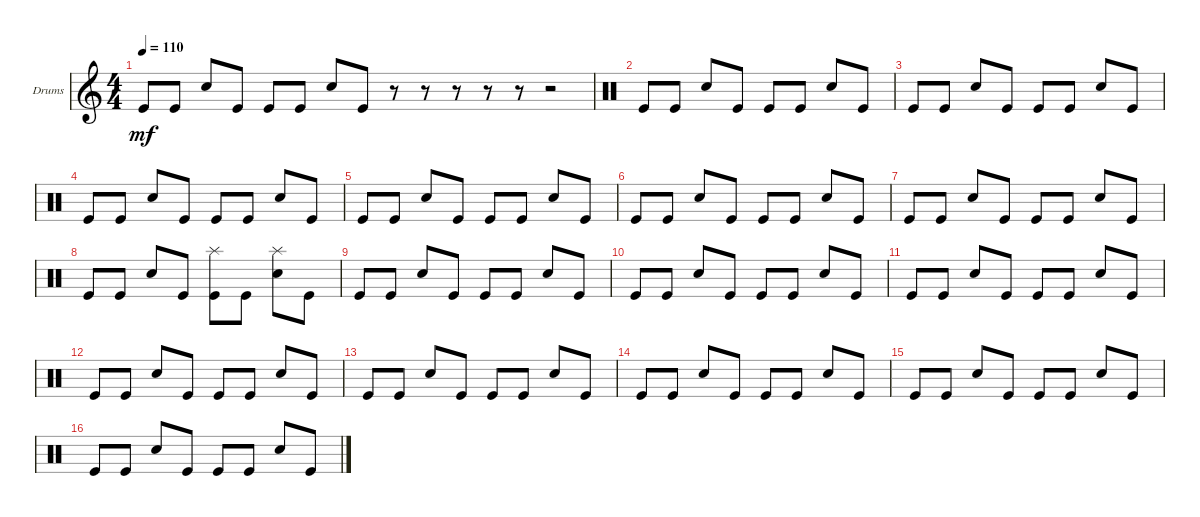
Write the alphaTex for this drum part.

\defaultSystemsLayout 4
\bracketExtendMode groupsimilarinstruments
\firstSystemTrackNameOrientation horizontal
\otherSystemsTrackNameOrientation horizontal
\track ("Tico Torres" "Drums") {instrument percussion}
\staff {score}
\articulation defaults
\ts (4 4)
\tempo 110
\clef g2
\ks c "Kick (hit)".8{dy mf} "Kick (hit)".8 "Snare (hit) 2".8 "Kick (hit)".8 "Kick (hit)".8 "Kick (hit)".8 "Snare (hit) 2".8 "Kick (hit)".8
r.8 r.8 r.8 r.8 r.8 r.2 |
\clef neutral "Kick (hit)".8 "Kick (hit)".8 "Snare (hit) 2".8 "Kick (hit)".8 "Kick (hit)".8 "Kick (hit)".8 "Snare (hit) 2".8 "Kick (hit)".8
|
"Kick (hit)".8 "Kick (hit)".8 "Snare (hit) 2".8 "Kick (hit)".8 "Kick (hit)".8 "Kick (hit)".8 "Snare (hit) 2".8 "Kick (hit)".8 |
"Kick (hit)".8 "Kick (hit)".8 "Snare (hit) 2".8 "Kick (hit)".8 "Kick (hit)".8 "Kick (hit)".8 "Snare (hit) 2".8 "Kick (hit)".8 |
"Kick (hit)".8 "Kick (hit)".8 "Snare (hit) 2".8 "Kick (hit)".8 "Kick (hit)".8 "Kick (hit)".8 "Snare (hit) 2".8 "Kick (hit)".8 |
"Kick (hit)".8 "Kick (hit)".8 "Snare (hit) 2".8 "Kick (hit)".8 "Kick (hit)".8 "Kick (hit)".8 "Snare (hit) 2".8 "Kick (hit)".8 |
"Kick (hit)".8 "Kick (hit)".8 "Snare (hit) 2".8 "Kick (hit)".8 "Kick (hit)".8 "Kick (hit)".8 "Snare (hit) 2".8 "Kick (hit)".8 |
"Kick (hit)".8 "Kick (hit)".8 "Snare (hit) 2".8 "Kick (hit)".8 ("Kick (hit)" "Splash (hit)").8 "Kick (hit)".8 ("Snare (hit) 2" "Splash (hit)").8 "Kick (hit)".8 |
"Kick (hit)".8 "Kick (hit)".8 "Snare (hit) 2".8 "Kick (hit)".8 "Kick (hit)".8 "Kick (hit)".8 "Snare (hit) 2".8 "Kick (hit)".8 |
"Kick (hit)".8 "Kick (hit)".8 "Snare (hit) 2".8 "Kick (hit)".8 "Kick (hit)".8 "Kick (hit)".8 "Snare (hit) 2".8 "Kick (hit)".8 |
"Kick (hit)".8 "Kick (hit)".8 "Snare (hit) 2".8 "Kick (hit)".8 "Kick (hit)".8 "Kick (hit)".8 "Snare (hit) 2".8 "Kick (hit)".8 |
"Kick (hit)".8 "Kick (hit)".8 "Snare (hit) 2".8 "Kick (hit)".8 "Kick (hit)".8 "Kick (hit)".8 "Snare (hit) 2".8 "Kick (hit)".8 |
"Kick (hit)".8 "Kick (hit)".8 "Snare (hit) 2".8 "Kick (hit)".8 "Kick (hit)".8 "Kick (hit)".8 "Snare (hit) 2".8 "Kick (hit)".8 |
"Kick (hit)".8 "Kick (hit)".8 "Snare (hit) 2".8 "Kick (hit)".8 "Kick (hit)".8 "Kick (hit)".8 "Snare (hit) 2".8 "Kick (hit)".8 |
"Kick (hit)".8 "Kick (hit)".8 "Snare (hit) 2".8 "Kick (hit)".8 "Kick (hit)".8 "Kick (hit)".8 "Snare (hit) 2".8 "Kick (hit)".8 |
"Kick (hit)".8 "Kick (hit)".8 "Snare (hit) 2".8 "Kick (hit)".8 "Kick (hit)".8 "Kick (hit)".8 "Snare (hit) 2".8 "Kick (hit)".8
